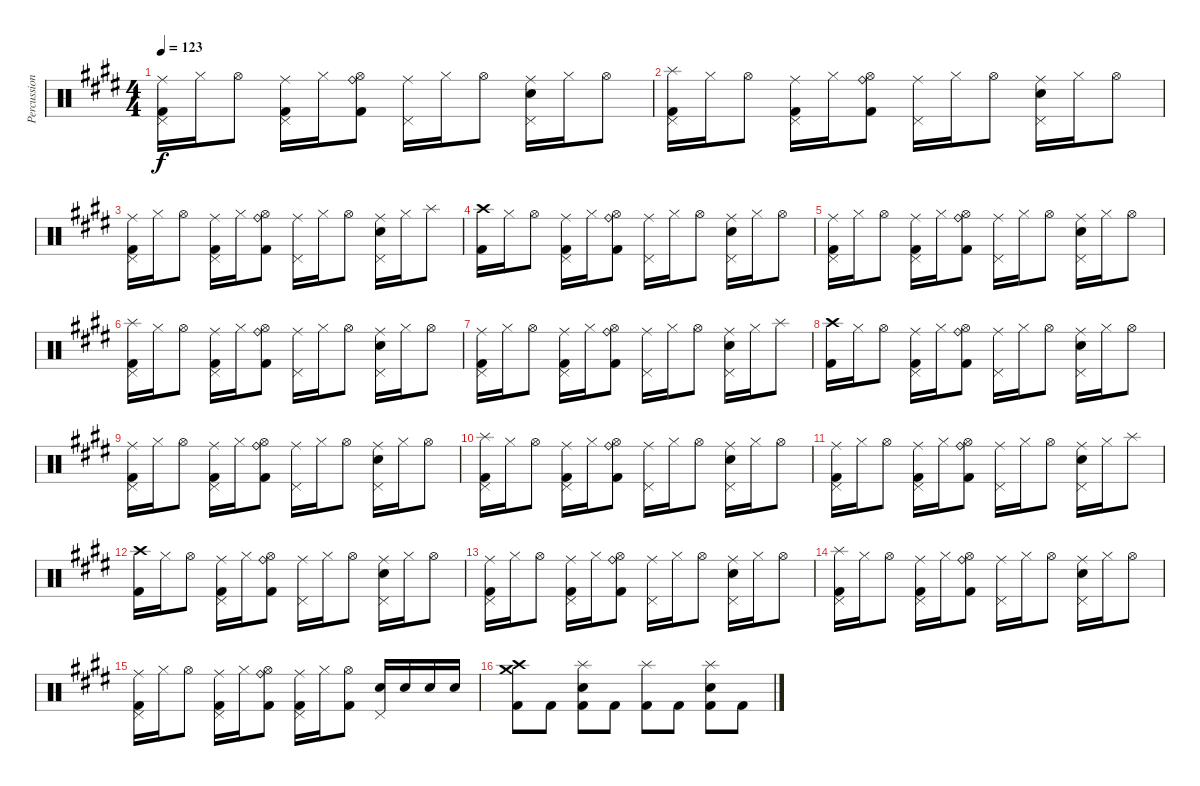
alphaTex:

\track ("Percussioni" "Percussion") {instrument percussion}
\staff {score}
\articulation defaults
\ts (4 4)
\tempo 123
\clef neutral
\ks e
("Ride (middle)" "Pedal Hi-Hat (hit)" "Kick (hit) 2").16{dy f} "Hi-Hat (closed)".16 "Hi-Hat (open)".8 ("Ride (middle)" "Pedal Hi-Hat (hit)" "Kick (hit) 2").16 "Hi-Hat (closed)".16 ("Ride (bell)" "Hi-Hat (open)" "Kick (hit) 2").8 ("Ride (middle)" "Pedal Hi-Hat (hit)").16 "Hi-Hat (closed)".16 "Hi-Hat (open)".8 ("Ride (middle)" "Pedal Hi-Hat (hit)" "Electric Snare (hit)").16 "Hi-Hat (closed)".16 "Hi-Hat (open)".8 |
("Splash (hit)" "Pedal Hi-Hat (hit)" "Kick (hit) 2").16 "Hi-Hat (closed)".16 "Hi-Hat (open)".8 ("Ride (middle)" "Pedal Hi-Hat (hit)" "Kick (hit) 2").16 "Hi-Hat (closed)".16 ("Ride (bell)" "Hi-Hat (open)" "Kick (hit) 2").8 ("Ride (middle)" "Pedal Hi-Hat (hit)").16 "Hi-Hat (closed)".16 "Hi-Hat (open)".8 ("Ride (middle)" "Pedal Hi-Hat (hit)" "Electric Snare (hit)").16 "Hi-Hat (closed)".16 "Hi-Hat (open)".8 |
("Ride (middle)" "Pedal Hi-Hat (hit)" "Kick (hit) 2").16 "Hi-Hat (closed)".16 "Hi-Hat (open)".8 ("Ride (middle)" "Pedal Hi-Hat (hit)" "Kick (hit) 2").16 "Hi-Hat (closed)".16 ("Ride (bell)" "Hi-Hat (open)" "Kick (hit) 2").8 ("Ride (middle)" "Pedal Hi-Hat (hit)").16 "Hi-Hat (closed)".16 "Hi-Hat (open)".8 ("Ride (middle)" "Pedal Hi-Hat (hit)" "Electric Snare (hit)").16 "Hi-Hat (closed)".16 "Splash (hit)".8 |
("Crash high (hit)" "Kick (hit) 2").16 "Hi-Hat (closed)".16 "Hi-Hat (open)".8 ("Ride (middle)" "Pedal Hi-Hat (hit)" "Kick (hit) 2").16 "Hi-Hat (closed)".16 ("Ride (bell)" "Hi-Hat (open)" "Kick (hit) 2").8 ("Ride (middle)" "Pedal Hi-Hat (hit)").16 "Hi-Hat (closed)".16 "Hi-Hat (open)".8 ("Ride (middle)" "Pedal Hi-Hat (hit)" "Electric Snare (hit)").16 "Hi-Hat (closed)".16 "Hi-Hat (open)".8 |
("Ride (middle)" "Pedal Hi-Hat (hit)" "Kick (hit) 2").16 "Hi-Hat (closed)".16 "Hi-Hat (open)".8 ("Ride (middle)" "Pedal Hi-Hat (hit)" "Kick (hit) 2").16 "Hi-Hat (closed)".16 ("Ride (bell)" "Hi-Hat (open)" "Kick (hit) 2").8 ("Ride (middle)" "Pedal Hi-Hat (hit)").16 "Hi-Hat (closed)".16 "Hi-Hat (open)".8 ("Ride (middle)" "Pedal Hi-Hat (hit)" "Electric Snare (hit)").16 "Hi-Hat (closed)".16 "Hi-Hat (open)".8 |
("Splash (hit)" "Pedal Hi-Hat (hit)" "Kick (hit) 2").16 "Hi-Hat (closed)".16 "Hi-Hat (open)".8 ("Ride (middle)" "Pedal Hi-Hat (hit)" "Kick (hit) 2").16 "Hi-Hat (closed)".16 ("Ride (bell)" "Hi-Hat (open)" "Kick (hit) 2").8 ("Ride (middle)" "Pedal Hi-Hat (hit)").16 "Hi-Hat (closed)".16 "Hi-Hat (open)".8 ("Ride (middle)" "Pedal Hi-Hat (hit)" "Electric Snare (hit)").16 "Hi-Hat (closed)".16 "Hi-Hat (open)".8 |
("Ride (middle)" "Pedal Hi-Hat (hit)" "Kick (hit) 2").16 "Hi-Hat (closed)".16 "Hi-Hat (open)".8 ("Ride (middle)" "Pedal Hi-Hat (hit)" "Kick (hit) 2").16 "Hi-Hat (closed)".16 ("Ride (bell)" "Hi-Hat (open)" "Kick (hit) 2").8 ("Ride (middle)" "Pedal Hi-Hat (hit)").16 "Hi-Hat (closed)".16 "Hi-Hat (open)".8 ("Ride (middle)" "Pedal Hi-Hat (hit)" "Electric Snare (hit)").16 "Hi-Hat (closed)".16 "Splash (hit)".8 |
("Crash high (hit)" "Kick (hit) 2").16 "Hi-Hat (closed)".16 "Hi-Hat (open)".8 ("Ride (middle)" "Pedal Hi-Hat (hit)" "Kick (hit) 2").16 "Hi-Hat (closed)".16 ("Ride (bell)" "Hi-Hat (open)" "Kick (hit) 2").8 ("Ride (middle)" "Pedal Hi-Hat (hit)").16 "Hi-Hat (closed)".16 "Hi-Hat (open)".8 ("Ride (middle)" "Pedal Hi-Hat (hit)" "Electric Snare (hit)").16 "Hi-Hat (closed)".16 "Hi-Hat (open)".8 |
("Ride (middle)" "Pedal Hi-Hat (hit)" "Kick (hit) 2").16 "Hi-Hat (closed)".16 "Hi-Hat (open)".8 ("Ride (middle)" "Pedal Hi-Hat (hit)" "Kick (hit) 2").16 "Hi-Hat (closed)".16 ("Ride (bell)" "Hi-Hat (open)" "Kick (hit) 2").8 ("Ride (middle)" "Pedal Hi-Hat (hit)").16 "Hi-Hat (closed)".16 "Hi-Hat (open)".8 ("Ride (middle)" "Pedal Hi-Hat (hit)" "Electric Snare (hit)").16 "Hi-Hat (closed)".16 "Hi-Hat (open)".8 |
("Splash (hit)" "Pedal Hi-Hat (hit)" "Kick (hit) 2").16 "Hi-Hat (closed)".16 "Hi-Hat (open)".8 ("Ride (middle)" "Pedal Hi-Hat (hit)" "Kick (hit) 2").16 "Hi-Hat (closed)".16 ("Ride (bell)" "Hi-Hat (open)" "Kick (hit) 2").8 ("Ride (middle)" "Pedal Hi-Hat (hit)").16 "Hi-Hat (closed)".16 "Hi-Hat (open)".8 ("Ride (middle)" "Pedal Hi-Hat (hit)" "Electric Snare (hit)").16 "Hi-Hat (closed)".16 "Hi-Hat (open)".8 |
("Ride (middle)" "Pedal Hi-Hat (hit)" "Kick (hit) 2").16 "Hi-Hat (closed)".16 "Hi-Hat (open)".8 ("Ride (middle)" "Pedal Hi-Hat (hit)" "Kick (hit) 2").16 "Hi-Hat (closed)".16 ("Ride (bell)" "Hi-Hat (open)" "Kick (hit) 2").8 ("Ride (middle)" "Pedal Hi-Hat (hit)").16 "Hi-Hat (closed)".16 "Hi-Hat (open)".8 ("Ride (middle)" "Pedal Hi-Hat (hit)" "Electric Snare (hit)").16 "Hi-Hat (closed)".16 "Splash (hit)".8 |
("Crash high (hit)" "Kick (hit) 2").16 "Hi-Hat (closed)".16 "Hi-Hat (open)".8 ("Ride (middle)" "Pedal Hi-Hat (hit)" "Kick (hit) 2").16 "Hi-Hat (closed)".16 ("Ride (bell)" "Hi-Hat (open)" "Kick (hit) 2").8 ("Ride (middle)" "Pedal Hi-Hat (hit)").16 "Hi-Hat (closed)".16 "Hi-Hat (open)".8 ("Ride (middle)" "Pedal Hi-Hat (hit)" "Electric Snare (hit)").16 "Hi-Hat (closed)".16 "Hi-Hat (open)".8 |
("Ride (middle)" "Pedal Hi-Hat (hit)" "Kick (hit) 2").16 "Hi-Hat (closed)".16 "Hi-Hat (open)".8 ("Ride (middle)" "Pedal Hi-Hat (hit)" "Kick (hit) 2").16 "Hi-Hat (closed)".16 ("Ride (bell)" "Hi-Hat (open)" "Kick (hit) 2").8 ("Ride (middle)" "Pedal Hi-Hat (hit)").16 "Hi-Hat (closed)".16 "Hi-Hat (open)".8 ("Ride (middle)" "Pedal Hi-Hat (hit)" "Electric Snare (hit)").16 "Hi-Hat (closed)".16 "Hi-Hat (open)".8 |
("Splash (hit)" "Pedal Hi-Hat (hit)" "Kick (hit) 2").16 "Hi-Hat (closed)".16 "Hi-Hat (open)".8 ("Ride (middle)" "Pedal Hi-Hat (hit)" "Kick (hit) 2").16 "Hi-Hat (closed)".16 ("Ride (bell)" "Hi-Hat (open)" "Kick (hit) 2").8 ("Ride (middle)" "Pedal Hi-Hat (hit)").16 "Hi-Hat (closed)".16 "Hi-Hat (open)".8 ("Ride (middle)" "Pedal Hi-Hat (hit)" "Electric Snare (hit)").16 "Hi-Hat (closed)".16 "Hi-Hat (open)".8 |
("Ride (middle)" "Pedal Hi-Hat (hit)" "Kick (hit) 2").16 "Hi-Hat (closed)".16 "Hi-Hat (open)".8 ("Ride (middle)" "Pedal Hi-Hat (hit)" "Kick (hit) 2").16 "Hi-Hat (closed)".16 ("Ride (bell)" "Hi-Hat (open)" "Kick (hit) 2").8 ("Ride (middle)" "Pedal Hi-Hat (hit)" "Kick (hit) 2").16 "Hi-Hat (closed)".16 ("Hi-Hat (open)" "Kick (hit) 2").8 ("Pedal Hi-Hat (hit)" "Electric Snare (hit)").16 "Electric Snare (hit)".16 "Electric Snare (hit)".16 "Electric Snare (hit)".16 |
("Crash high (hit)" "Crash medium (hit)" "Kick (hit) 2").8 "Kick (hit) 2".8 ("Splash (hit)" "Electric Snare (hit)" "Kick (hit) 2").8 "Kick (hit) 2".8 ("Splash (hit)" "Kick (hit) 2").8 "Kick (hit) 2".8 ("Splash (hit)" "Electric Snare (hit)" "Kick (hit) 2").8 "Kick (hit) 2".8
